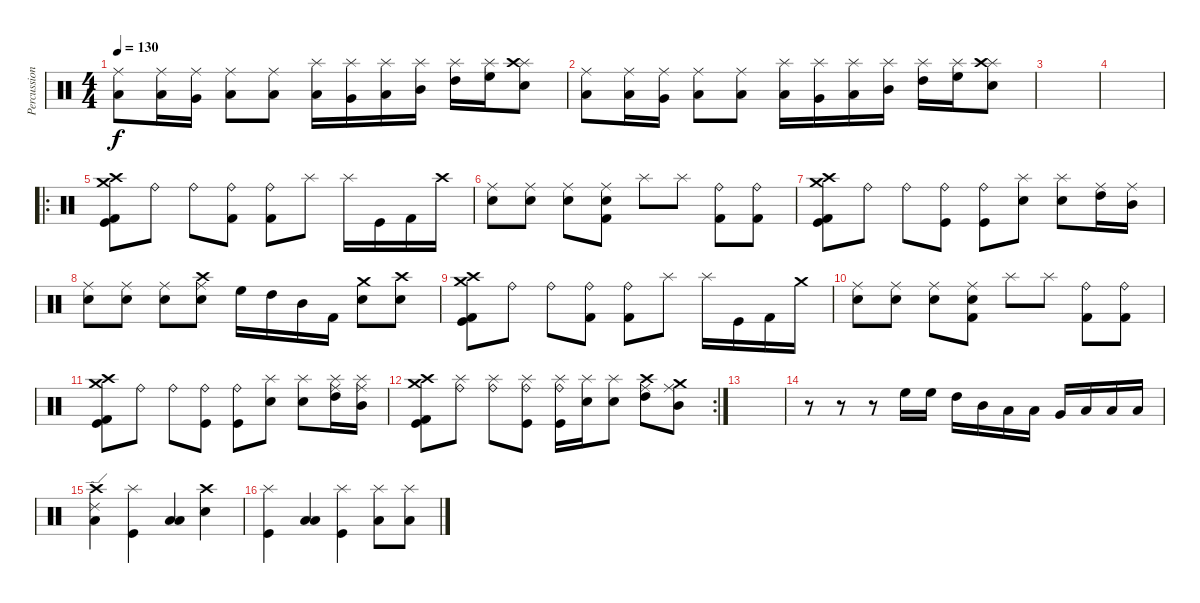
\track ("Percussion" "Percussion") {instrument percussion}
\staff {score}
\articulation defaults
\ts (4 4)
\tempo 130
\clef neutral
\ks c
("Ride (middle)" "Low Floor Tom (hit)").8{dy f} ("Ride (middle)" "Low Tom (hit)").16 ("Ride (middle)" "Very Low Tom (hit)").16 ("Ride (middle)" "Low Floor Tom (hit)").8 ("Ride (middle)" "Low Floor Tom (hit)").8 ("Splash (hit)" "Low Floor Tom (hit)").16 ("Splash (hit)" "Very Low Tom (hit)").16 ("Splash (hit)" "Low Tom (hit)").16 ("Splash (hit)" "Mid Tom (hit)").16 ("Splash (hit)" "High Tom (hit)").16 ("Splash (hit)" "High Floor Tom (hit)").16 ("Splash (hit)" "Electric Snare (hit)" "Crash high (hit)").8 |
("Ride (middle)" "Low Floor Tom (hit)").8 ("Ride (middle)" "Low Tom (hit)").16 ("Ride (middle)" "Very Low Tom (hit)").16 ("Ride (middle)" "Low Floor Tom (hit)").8 ("Ride (middle)" "Low Floor Tom (hit)").8 ("Splash (hit)" "Low Floor Tom (hit)").16 ("Splash (hit)" "Very Low Tom (hit)").16 ("Splash (hit)" "Low Tom (hit)").16 ("Splash (hit)" "Mid Tom (hit)").16 ("Splash (hit)" "High Tom (hit)").16 ("Splash (hit)" "High Floor Tom (hit)").16 ("Splash (hit)" "Electric Snare (hit)" "Crash high (hit)").8 |
|
|
\ro
("Crash high (hit)" "Crash medium (hit)" "Kick (hit)" "Kick (hit) 2").8 "Ride (bell)".8 "Ride (bell)".8 ("Ride (bell)" "Kick (hit) 2").8 ("Ride (bell)" "Kick (hit) 2").8 "Splash (hit)".8 "Splash (hit)".16 "Kick (hit)".16 "Kick (hit) 2".16 "Crash high (hit)".16 |
("Ride (middle)" "Electric Snare (hit)").8 ("Ride (middle)" "Electric Snare (hit)").8 ("Ride (middle)" "Electric Snare (hit)").8 ("Ride (middle)" "Snare (hit) 2" "Kick (hit) 2").8 "Splash (hit)".8 "Splash (hit)".8 ("Ride (bell)" "Kick (hit) 2").8 ("Ride (bell)" "Kick (hit) 2").8 |
("Crash high (hit)" "Crash medium (hit)" "Kick (hit)" "Kick (hit) 2").8 "Ride (bell)".8 "Ride (bell)".8 ("Ride (bell)" "Kick (hit)").8 ("Ride (bell)" "Kick (hit)").8 ("Splash (hit)" "Electric Snare (hit)").8 ("Splash (hit)" "Electric Snare (hit)").8 ("Ride (middle)" "High Tom (hit)").16 ("Ride (middle)" "Mid Tom (hit)").16 |
("Ride (middle)" "Electric Snare (hit)").8 ("Ride (middle)" "Electric Snare (hit)").8 ("Ride (middle)" "Electric Snare (hit)").8 ("Ride (middle)" "Crash high (hit)" "Snare (hit) 2").8 "High Floor Tom (hit)".16 "High Tom (hit)".16 "Mid Tom (hit)".16 "Kick (hit) 2".16 ("Electric Snare (hit)" "Crash medium (hit)").8 ("Snare (hit) 2" "Crash high (hit)").8 |
("Crash high (hit)" "Crash medium (hit)" "Kick (hit)" "Kick (hit) 2").8 "Ride (bell)".8 "Ride (bell)".8 ("Ride (bell)" "Kick (hit) 2").8 ("Ride (bell)" "Kick (hit) 2").8 "Splash (hit)".8 "Splash (hit)".16 "Kick (hit)".16 "Kick (hit) 2".16 "Crash medium (hit)".16 |
("Ride (middle)" "Electric Snare (hit)").8 ("Ride (middle)" "Electric Snare (hit)").8 ("Ride (middle)" "Electric Snare (hit)").8 ("Ride (middle)" "Snare (hit) 2" "Kick (hit) 2").8 "Splash (hit)".8 "Splash (hit)".8 ("Ride (bell)" "Kick (hit) 2").8 ("Ride (bell)" "Kick (hit) 2").8 |
("Crash high (hit)" "Crash medium (hit)" "Kick (hit)" "Kick (hit) 2").8 "Ride (bell)".8 "Ride (bell)".8 ("Ride (bell)" "Kick (hit)").8 ("Ride (bell)" "Kick (hit)").8 ("Splash (hit)" "Electric Snare (hit)").8 ("Splash (hit)" "Electric Snare (hit)").8 ("Ride (middle)" "High Tom (hit)" "Splash (hit)").16 ("Ride (middle)" "Mid Tom (hit)" "Splash (hit)").16 |
\rc 2
("Crash high (hit)" "Crash medium (hit)" "Kick (hit)" "Kick (hit) 2").8 ("Ride (bell)" "Splash (hit)").8 ("Ride (bell)" "Splash (hit)").8 ("Ride (bell)" "Kick (hit)" "Splash (hit)").8 ("Ride (bell)" "Kick (hit)" "Splash (hit)").16 ("Splash (hit)" "Electric Snare (hit)").16 ("Splash (hit)" "Electric Snare (hit)").8 ("Ride (middle)" "High Tom (hit)" "Crash high (hit)").8 ("Ride (middle)" "Mid Tom (hit)" "Crash medium (hit)").8 |
|
r.8 r.8 r.8 "High Floor Tom (hit)".16 "High Floor Tom (hit)".16 "High Tom (hit)".16 "Mid Tom (hit)".16 "Low Tom (hit)".16 "Low Tom (hit)".16 "Very Low Tom (hit)".16 "Low Floor Tom (hit)".16 "Low Floor Tom (hit)".16 "Low Floor Tom (hit)".16 |
("Ride (edge) 2" "Crash high (hit)" "Low Tom (hit)").4 ("Splash (hit)" "Kick (hit)").4 ("Low Tom (hit)" "Low Tom (hit)").4 ("Crash high (hit)" "Electric Snare (hit)").4 |
("Splash (hit)" "Kick (hit)").4 ("Low Tom (hit)" "Low Tom (hit)").4 ("Splash (hit)" "Kick (hit)").4 ("Splash (hit)" "Low Floor Tom (hit)").8 ("Splash (hit)" "Low Floor Tom (hit)").8
